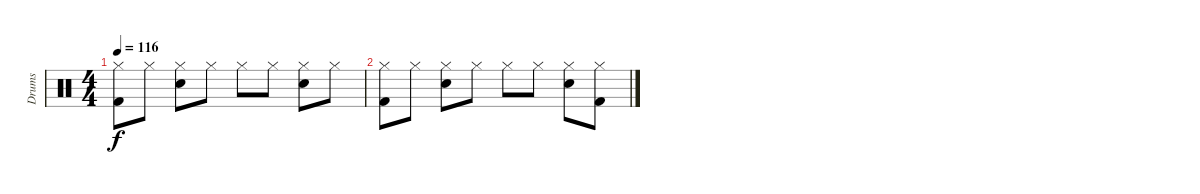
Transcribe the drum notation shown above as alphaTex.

\track ("Drums" "Drums") {instrument percussion}
\staff {score}
\articulation defaults
\ts (4 4)
\tempo 116
\clef neutral
\ks c
("Kick (hit) 2" "Hi-Hat (closed)").8{dy f} "Hi-Hat (closed)".8 ("Snare (hit) 2" "Hi-Hat (closed)").8 "Hi-Hat (closed)".8 "Hi-Hat (closed)".8 "Hi-Hat (closed)".8 ("Snare (hit) 2" "Hi-Hat (closed)").8 "Hi-Hat (closed)".8 |
("Kick (hit) 2" "Hi-Hat (closed)").8 "Hi-Hat (closed)".8 ("Snare (hit) 2" "Hi-Hat (closed)").8 "Hi-Hat (closed)".8 "Hi-Hat (closed)".8 "Hi-Hat (closed)".8 ("Snare (hit) 2" "Hi-Hat (closed)").8 ("Kick (hit) 2" "Hi-Hat (closed)").8
